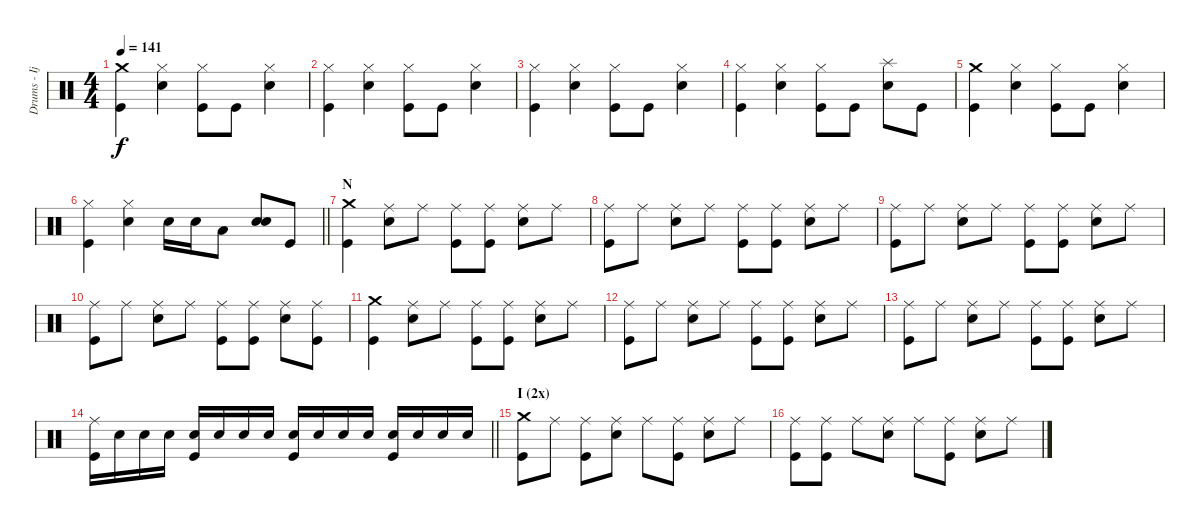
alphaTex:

\track ("Drums - Ijichi" "Drums - Ij") {instrument percussion}
\staff {score}
\articulation defaults
\ts (4 4)
\tempo 141
\clef neutral
\ks c
("Crash medium (hit)" "Kick (hit)").4{dy f} ("Hi-Hat (closed)" "Electric Snare (hit)").4 ("Hi-Hat (closed)" "Kick (hit)").8 "Kick (hit)".8 ("Hi-Hat (closed)" "Electric Snare (hit)").4 |
("Hi-Hat (closed)" "Kick (hit)").4 ("Hi-Hat (closed)" "Electric Snare (hit)").4 ("Hi-Hat (closed)" "Kick (hit)").8 "Kick (hit)".8 ("Hi-Hat (closed)" "Electric Snare (hit)").4 |
("Hi-Hat (closed)" "Kick (hit)").4 ("Hi-Hat (closed)" "Electric Snare (hit)").4 ("Hi-Hat (closed)" "Kick (hit)").8 "Kick (hit)".8 ("Hi-Hat (closed)" "Electric Snare (hit)").4 |
("Hi-Hat (closed)" "Kick (hit)").4 ("Hi-Hat (closed)" "Electric Snare (hit)").4 ("Hi-Hat (closed)" "Kick (hit)").8 "Kick (hit)".8 ("Splash (hit)" "Electric Snare (hit)").8 "Kick (hit)".8 |
("Crash medium (hit)" "Kick (hit)").4 ("Hi-Hat (closed)" "Electric Snare (hit)").4 ("Hi-Hat (closed)" "Kick (hit)").8 "Kick (hit)".8 ("Hi-Hat (closed)" "Electric Snare (hit)").4 |
\barLineRight lightlight
("Hi-Hat (closed)" "Kick (hit)").4 ("Hi-Hat (closed)" "Electric Snare (hit)").4 "Electric Snare (hit)".16 "Electric Snare (hit)".16 "Low Tom (hit)".8 ("Electric Snare (hit)" "Electric Snare (hit)").8 "Kick (hit)".8 |
\section ("" "N")
("Crash medium (hit)" "Kick (hit)").4 ("Ride (middle)" "Electric Snare (hit)").8 "Ride (middle)".8 ("Ride (middle)" "Kick (hit)").8 ("Ride (middle)" "Kick (hit)").8 ("Ride (middle)" "Electric Snare (hit)").8 "Ride (middle)".8 |
("Ride (middle)" "Kick (hit)").8 "Ride (middle)".8 ("Ride (middle)" "Electric Snare (hit)").8 "Ride (middle)".8 ("Ride (middle)" "Kick (hit)").8 ("Ride (middle)" "Kick (hit)").8 ("Ride (middle)" "Electric Snare (hit)").8 "Ride (middle)".8 |
("Ride (middle)" "Kick (hit)").8 "Ride (middle)".8 ("Ride (middle)" "Electric Snare (hit)").8 "Ride (middle)".8 ("Ride (middle)" "Kick (hit)").8 ("Ride (middle)" "Kick (hit)").8 ("Ride (middle)" "Electric Snare (hit)").8 "Ride (middle)".8 |
("Ride (middle)" "Kick (hit)").8 "Ride (middle)".8 ("Ride (middle)" "Electric Snare (hit)").8 "Ride (middle)".8 ("Ride (middle)" "Kick (hit)").8 ("Ride (middle)" "Kick (hit)").8 ("Ride (middle)" "Electric Snare (hit)").8 ("Ride (middle)" "Kick (hit)").8 |
("Crash medium (hit)" "Kick (hit)").4 ("Ride (middle)" "Electric Snare (hit)").8 "Ride (middle)".8 ("Ride (middle)" "Kick (hit)").8 ("Ride (middle)" "Kick (hit)").8 ("Ride (middle)" "Electric Snare (hit)").8 "Ride (middle)".8 |
("Ride (middle)" "Kick (hit)").8 "Ride (middle)".8 ("Ride (middle)" "Electric Snare (hit)").8 "Ride (middle)".8 ("Ride (middle)" "Kick (hit)").8 ("Ride (middle)" "Kick (hit)").8 ("Ride (middle)" "Electric Snare (hit)").8 "Ride (middle)".8 |
("Ride (middle)" "Kick (hit)").8 "Ride (middle)".8 ("Ride (middle)" "Electric Snare (hit)").8 "Ride (middle)".8 ("Ride (middle)" "Kick (hit)").8 ("Ride (middle)" "Kick (hit)").8 ("Ride (middle)" "Electric Snare (hit)").8 "Ride (middle)".8 |
\barLineRight lightlight
("Ride (middle)" "Kick (hit)").16{volume 10} "Electric Snare (hit)".16{volume 13} "Electric Snare (hit)".16 "Electric Snare (hit)".16 ("Electric Snare (hit)" "Kick (hit)").16 "Electric Snare (hit)".16 "Electric Snare (hit)".16 "Electric Snare (hit)".16 ("Electric Snare (hit)" "Kick (hit)").16 "Electric Snare (hit)".16 "Electric Snare (hit)".16 "Electric Snare (hit)".16 ("Electric Snare (hit)" "Kick (hit)").16 "Electric Snare (hit)".16 "Electric Snare (hit)".16 "Electric Snare (hit)".16 |
\section ("" "I (2x)")
("Crash medium (hit)" "Kick (hit)").8 "Ride (middle)".8 ("Ride (middle)" "Kick (hit)").8 ("Ride (middle)" "Electric Snare (hit)").8 "Ride (middle)".8 ("Ride (middle)" "Kick (hit)").8 ("Ride (middle)" "Electric Snare (hit)").8 "Ride (middle)".8 |
("Ride (middle)" "Kick (hit)").8 ("Ride (middle)" "Kick (hit)").8 "Ride (middle)".8 ("Ride (middle)" "Electric Snare (hit)").8 "Ride (middle)".8 ("Ride (middle)" "Kick (hit)").8 ("Ride (middle)" "Electric Snare (hit)").8 "Ride (middle)".8
